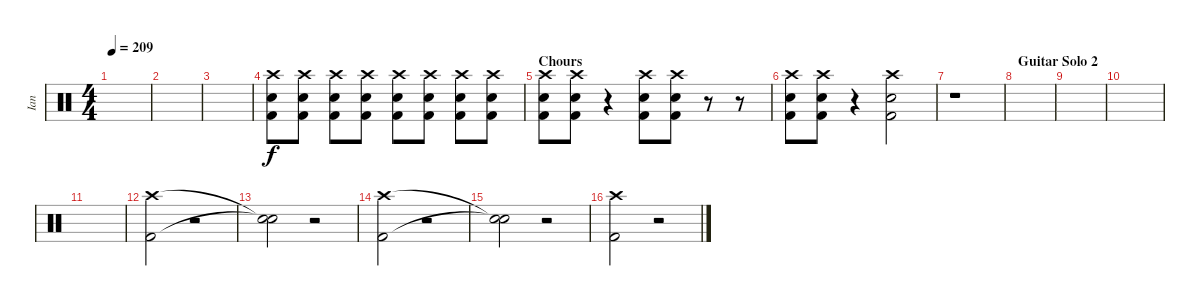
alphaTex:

\track ("Ian" "Ian") {instrument percussion}
\staff {score}
\articulation defaults
\ts (4 4)
\tempo 209
\clef neutral
\ks c
|
|
|
("Crash high (hit)" "Electric Snare (hit)" "Kick (hit) 2").8 ("Crash high (hit)" "Electric Snare (hit)" "Kick (hit) 2").8 ("Crash high (hit)" "Electric Snare (hit)" "Kick (hit) 2").8 ("Crash high (hit)" "Electric Snare (hit)" "Kick (hit) 2").8 ("Crash high (hit)" "Electric Snare (hit)" "Kick (hit) 2").8 ("Crash high (hit)" "Electric Snare (hit)" "Kick (hit) 2").8 ("Crash high (hit)" "Electric Snare (hit)" "Kick (hit) 2").8 ("Crash high (hit)" "Electric Snare (hit)" "Kick (hit) 2").8 |
\section ("" "Chours")
("Crash high (hit)" "Electric Snare (hit)" "Kick (hit) 2").8 ("Crash high (hit)" "Electric Snare (hit)" "Kick (hit) 2").8 r.4 ("Crash high (hit)" "Electric Snare (hit)" "Kick (hit) 2").8 ("Crash high (hit)" "Electric Snare (hit)" "Kick (hit) 2").8 r.8 r.8 |
("Crash high (hit)" "Electric Snare (hit)" "Kick (hit) 2").8 ("Crash high (hit)" "Electric Snare (hit)" "Kick (hit) 2").8 r.4 ("Electric Snare (hit)" "Crash high (hit)" "Kick (hit) 2").2 |
r.1 |
\section ("" "Guitar Solo 2")
|
|
|
|
("Kick (hit) 2" "Crash high (hit)").2 r.2 |
("Snare (hit)"{t} "Snare (hit)"{t}).2 r.2 |
("Kick (hit) 2" "Crash high (hit)").2 r.2 |
("Snare (hit)"{t} "Snare (hit)"{t}).2 r.2 |
("Kick (hit) 2" "Crash high (hit)").2 r.2
